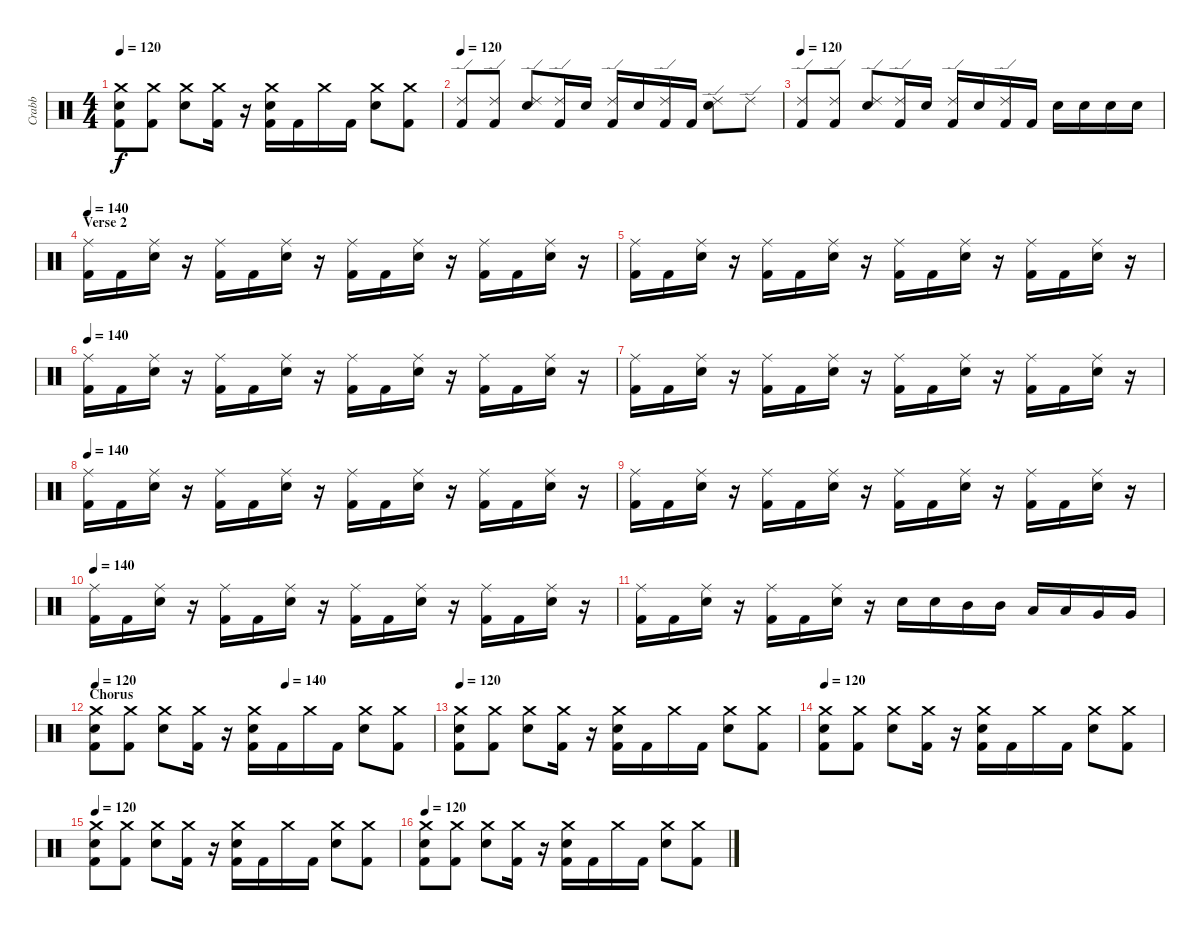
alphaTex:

\track ("Crabb" "Crabb") {instrument percussion}
\staff {score}
\articulation defaults
\ts (4 4)
\tempo 120
\clef neutral
\ks c
("Crash medium (hit)" "Kick (hit) 2" "Electric Snare (hit)").8{dy f} ("Crash medium (hit)" "Kick (hit) 2").8 ("Crash medium (hit)" "Electric Snare (hit)").8 ("Crash medium (hit)" "Kick (hit) 2").16 r.16 ("Crash medium (hit)" "Kick (hit) 2" "Electric Snare (hit)").16 "Kick (hit) 2".16 "Crash medium (hit)".16 "Kick (hit) 2".16 ("Crash medium (hit)" "Electric Snare (hit)").8 ("Crash medium (hit)" "Kick (hit) 2").8 |
\tempo 120
("Ride (edge) 2" "Kick (hit) 2").8 ("Ride (edge) 2" "Kick (hit) 2").8 ("Ride (edge) 2" "Electric Snare (hit)").8 ("Ride (edge) 2" "Kick (hit) 2").16 "Electric Snare (hit)".16 ("Ride (edge) 2" "Kick (hit) 2").16 "Electric Snare (hit)".16 ("Ride (edge) 2" "Kick (hit) 2").16 "Kick (hit) 2".16 ("Ride (edge) 2" "Electric Snare (hit)").8 "Ride (edge) 2".8 |
\tempo 120
("Ride (edge) 2" "Kick (hit) 2").8 ("Ride (edge) 2" "Kick (hit) 2").8 ("Ride (edge) 2" "Electric Snare (hit)").8 ("Ride (edge) 2" "Kick (hit) 2").16 "Electric Snare (hit)".16 ("Ride (edge) 2" "Kick (hit) 2").16 "Electric Snare (hit)".16 ("Ride (edge) 2" "Kick (hit) 2").16 "Kick (hit) 2".16 "Electric Snare (hit)".16 "Electric Snare (hit)".16 "Electric Snare (hit)".16 "Electric Snare (hit)".16 |
\section ("" "Verse 2")
\tempo 140
("Ride (middle)" "Kick (hit) 2").16 "Kick (hit) 2".16 ("Ride (middle)" "Electric Snare (hit)").16 r.16 ("Ride (middle)" "Kick (hit) 2").16 "Kick (hit) 2".16 ("Ride (middle)" "Electric Snare (hit)").16 r.16 ("Ride (middle)" "Kick (hit) 2").16 "Kick (hit) 2".16 ("Ride (middle)" "Electric Snare (hit)").16 r.16 ("Ride (middle)" "Kick (hit) 2").16 "Kick (hit) 2".16 ("Ride (middle)" "Electric Snare (hit)").16 r.16 |
("Ride (middle)" "Kick (hit) 2").16 "Kick (hit) 2".16 ("Ride (middle)" "Electric Snare (hit)").16 r.16 ("Ride (middle)" "Kick (hit) 2").16 "Kick (hit) 2".16 ("Ride (middle)" "Electric Snare (hit)").16 r.16 ("Ride (middle)" "Kick (hit) 2").16 "Kick (hit) 2".16 ("Ride (middle)" "Electric Snare (hit)").16 r.16 ("Ride (middle)" "Kick (hit) 2").16 "Kick (hit) 2".16 ("Ride (middle)" "Electric Snare (hit)").16 r.16 |
\tempo 140
("Ride (middle)" "Kick (hit) 2").16 "Kick (hit) 2".16 ("Ride (middle)" "Electric Snare (hit)").16 r.16 ("Ride (middle)" "Kick (hit) 2").16 "Kick (hit) 2".16 ("Ride (middle)" "Electric Snare (hit)").16 r.16 ("Ride (middle)" "Kick (hit) 2").16 "Kick (hit) 2".16 ("Ride (middle)" "Electric Snare (hit)").16 r.16 ("Ride (middle)" "Kick (hit) 2").16 "Kick (hit) 2".16 ("Ride (middle)" "Electric Snare (hit)").16 r.16 |
("Ride (middle)" "Kick (hit) 2").16 "Kick (hit) 2".16 ("Ride (middle)" "Electric Snare (hit)").16 r.16 ("Ride (middle)" "Kick (hit) 2").16 "Kick (hit) 2".16 ("Ride (middle)" "Electric Snare (hit)").16 r.16 ("Ride (middle)" "Kick (hit) 2").16 "Kick (hit) 2".16 ("Ride (middle)" "Electric Snare (hit)").16 r.16 ("Ride (middle)" "Kick (hit) 2").16 "Kick (hit) 2".16 ("Ride (middle)" "Electric Snare (hit)").16 r.16 |
\tempo 140
("Ride (middle)" "Kick (hit) 2").16 "Kick (hit) 2".16 ("Ride (middle)" "Electric Snare (hit)").16 r.16 ("Ride (middle)" "Kick (hit) 2").16 "Kick (hit) 2".16 ("Ride (middle)" "Electric Snare (hit)").16 r.16 ("Ride (middle)" "Kick (hit) 2").16 "Kick (hit) 2".16 ("Ride (middle)" "Electric Snare (hit)").16 r.16 ("Ride (middle)" "Kick (hit) 2").16 "Kick (hit) 2".16 ("Ride (middle)" "Electric Snare (hit)").16 r.16 |
("Ride (middle)" "Kick (hit) 2").16 "Kick (hit) 2".16 ("Ride (middle)" "Electric Snare (hit)").16 r.16 ("Ride (middle)" "Kick (hit) 2").16 "Kick (hit) 2".16 ("Ride (middle)" "Electric Snare (hit)").16 r.16 ("Ride (middle)" "Kick (hit) 2").16 "Kick (hit) 2".16 ("Ride (middle)" "Electric Snare (hit)").16 r.16 ("Ride (middle)" "Kick (hit) 2").16 "Kick (hit) 2".16 ("Ride (middle)" "Electric Snare (hit)").16 r.16 |
\tempo 140
("Ride (middle)" "Kick (hit) 2").16 "Kick (hit) 2".16 ("Ride (middle)" "Electric Snare (hit)").16 r.16 ("Ride (middle)" "Kick (hit) 2").16 "Kick (hit) 2".16 ("Ride (middle)" "Electric Snare (hit)").16 r.16 ("Ride (middle)" "Kick (hit) 2").16 "Kick (hit) 2".16 ("Ride (middle)" "Electric Snare (hit)").16 r.16 ("Ride (middle)" "Kick (hit) 2").16 "Kick (hit) 2".16 ("Ride (middle)" "Electric Snare (hit)").16 r.16 |
("Ride (middle)" "Kick (hit) 2").16 "Kick (hit) 2".16 ("Ride (middle)" "Electric Snare (hit)").16 r.16 ("Ride (middle)" "Kick (hit) 2").16 "Kick (hit) 2".16 ("Ride (middle)" "Electric Snare (hit)").16 r.16 "Electric Snare (hit)".16 "Electric Snare (hit)".16 "Mid Tom (hit)".16 "Mid Tom (hit)".16 "Low Tom (hit)".16 "Low Tom (hit)".16 "Very Low Tom (hit)".16 "Very Low Tom (hit)".16 |
\section ("" "Chorus")
\tempo 120
\tempo (140 0.5625)
("Crash medium (hit)" "Kick (hit) 2" "Electric Snare (hit)").8 ("Crash medium (hit)" "Kick (hit) 2").8 ("Crash medium (hit)" "Electric Snare (hit)").8 ("Crash medium (hit)" "Kick (hit) 2").16 r.16 ("Crash medium (hit)" "Kick (hit) 2" "Electric Snare (hit)").16 "Kick (hit) 2".16 "Crash medium (hit)".16 "Kick (hit) 2".16 ("Crash medium (hit)" "Electric Snare (hit)").8 ("Crash medium (hit)" "Kick (hit) 2").8 |
\tempo 120
("Crash medium (hit)" "Kick (hit) 2" "Electric Snare (hit)").8 ("Crash medium (hit)" "Kick (hit) 2").8 ("Crash medium (hit)" "Electric Snare (hit)").8 ("Crash medium (hit)" "Kick (hit) 2").16 r.16 ("Crash medium (hit)" "Kick (hit) 2" "Electric Snare (hit)").16 "Kick (hit) 2".16 "Crash medium (hit)".16 "Kick (hit) 2".16 ("Crash medium (hit)" "Electric Snare (hit)").8 ("Crash medium (hit)" "Kick (hit) 2").8 |
\tempo 120
("Crash medium (hit)" "Kick (hit) 2" "Electric Snare (hit)").8 ("Crash medium (hit)" "Kick (hit) 2").8 ("Crash medium (hit)" "Electric Snare (hit)").8 ("Crash medium (hit)" "Kick (hit) 2").16 r.16 ("Crash medium (hit)" "Kick (hit) 2" "Electric Snare (hit)").16 "Kick (hit) 2".16 "Crash medium (hit)".16 "Kick (hit) 2".16 ("Crash medium (hit)" "Electric Snare (hit)").8 ("Crash medium (hit)" "Kick (hit) 2").8 |
\tempo 120
("Crash medium (hit)" "Kick (hit) 2" "Electric Snare (hit)").8 ("Crash medium (hit)" "Kick (hit) 2").8 ("Crash medium (hit)" "Electric Snare (hit)").8 ("Crash medium (hit)" "Kick (hit) 2").16 r.16 ("Crash medium (hit)" "Kick (hit) 2" "Electric Snare (hit)").16 "Kick (hit) 2".16 "Crash medium (hit)".16 "Kick (hit) 2".16 ("Crash medium (hit)" "Electric Snare (hit)").8 ("Crash medium (hit)" "Kick (hit) 2").8 |
\tempo 120
("Crash medium (hit)" "Kick (hit) 2" "Electric Snare (hit)").8 ("Crash medium (hit)" "Kick (hit) 2").8 ("Crash medium (hit)" "Electric Snare (hit)").8 ("Crash medium (hit)" "Kick (hit) 2").16 r.16 ("Crash medium (hit)" "Kick (hit) 2" "Electric Snare (hit)").16 "Kick (hit) 2".16 "Crash medium (hit)".16 "Kick (hit) 2".16 ("Crash medium (hit)" "Electric Snare (hit)").8 ("Crash medium (hit)" "Kick (hit) 2").8
